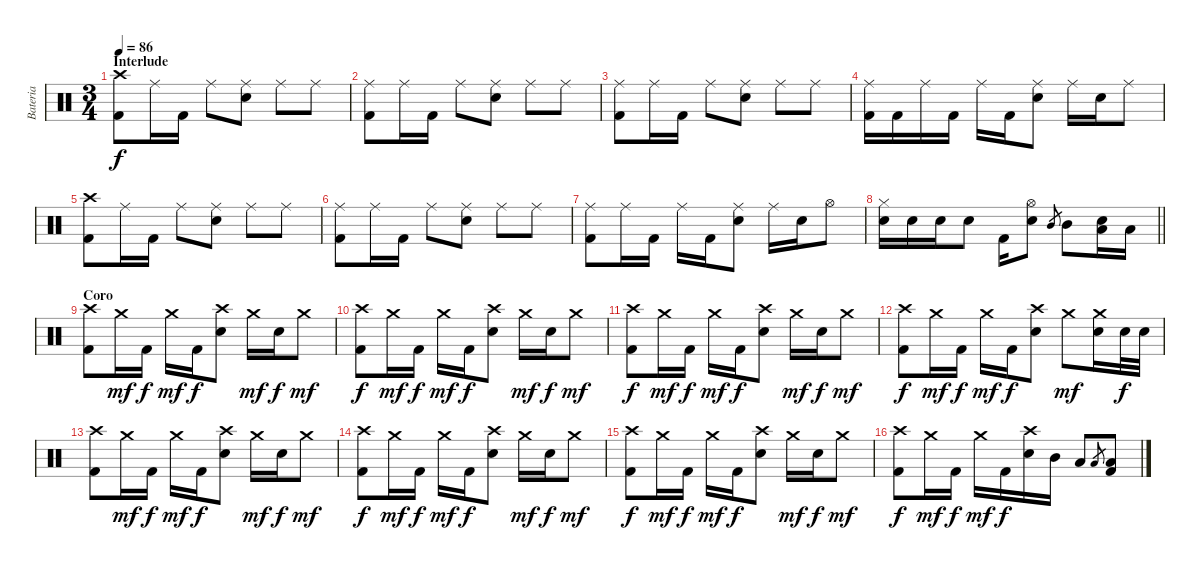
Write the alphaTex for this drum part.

\track ("Bateria" "Bateria") {instrument percussion}
\staff {score}
\articulation defaults
\ts (3 4)
\section ("" "Interlude")
\tempo 86
\clef neutral
\ks c
("Crash high (hit)" "Kick (hit) 2").8{dy f} "Ride (middle)".16 "Kick (hit) 2".16 "Ride (middle)".8 ("Ride (middle)" "Snare (hit) 2").8 "Ride (middle)".8 "Ride (middle)".8 |
("Ride (middle)" "Kick (hit) 2").8 "Ride (middle)".16 "Kick (hit) 2".16 "Ride (middle)".8 ("Ride (middle)" "Snare (hit) 2").8 "Ride (middle)".8 "Ride (middle)".8 |
("Ride (middle)" "Kick (hit) 2").8 "Ride (middle)".16 "Kick (hit) 2".16 "Ride (middle)".8 ("Ride (middle)" "Snare (hit) 2").8 "Ride (middle)".8 "Ride (middle)".8 |
("Ride (middle)" "Kick (hit) 2").16 "Kick (hit) 2".16 "Ride (middle)".16 "Kick (hit) 2".16 "Ride (middle)".16 "Kick (hit) 2".16 ("Ride (middle)" "Snare (hit) 2").8 "Ride (middle)".16 "Snare (hit) 2".16 "Ride (middle)".8 |
("Crash high (hit)" "Kick (hit) 2").8 "Ride (middle)".16 "Kick (hit) 2".16 "Ride (middle)".8 ("Ride (middle)" "Snare (hit) 2").8 "Ride (middle)".8 "Ride (middle)".8 |
("Ride (middle)" "Kick (hit) 2").8 "Ride (middle)".16 "Kick (hit) 2".16 "Ride (middle)".8 ("Ride (middle)" "Snare (hit) 2").8 "Ride (middle)".8 "Ride (middle)".8 |
("Ride (middle)" "Kick (hit) 2").8 "Ride (middle)".16 "Kick (hit) 2".16 "Ride (middle)".16 "Kick (hit) 2".16 ("Ride (middle)" "Snare (hit) 2").8 "Ride (middle)".16 "Snare (hit) 2".16 "Hi-Hat (open)".8 |
\barLineRight lightlight
("Hi-Hat (closed)" "Snare (hit) 2").16 "Snare (hit) 2".16 "Snare (hit) 2".16 "Snare (hit) 2".8 "Kick (hit) 2".16 ("Hi-Hat (open)" "Snare (hit) 2").8 "Mid Tom (hit)".8{gr} "Mid Tom (hit)".8 ("Snare (hit) 2" "Low Tom (hit)").16 "Low Floor Tom (hit)".16 |
\section ("" "Coro")
("Crash high (hit)" "Kick (hit) 2").8 "Crash medium (hit)".16{dy mf} "Kick (hit) 2".16{dy f} "Crash medium (hit)".16{dy mf} "Kick (hit) 2".16{dy f} ("Crash high (hit)" "Snare (hit) 2").8 "Crash medium (hit)".16{dy mf} "Snare (hit) 2".16{dy f} "Crash medium (hit)".8{dy mf} |
("Crash high (hit)" "Kick (hit) 2").8{dy f} "Crash medium (hit)".16{dy mf} "Kick (hit) 2".16{dy f} "Crash medium (hit)".16{dy mf} "Kick (hit) 2".16{dy f} ("Crash high (hit)" "Snare (hit) 2").8 "Crash medium (hit)".16{dy mf} "Snare (hit) 2".16{dy f} "Crash medium (hit)".8{dy mf} |
("Crash high (hit)" "Kick (hit) 2").8{dy f} "Crash medium (hit)".16{dy mf} "Kick (hit) 2".16{dy f} "Crash medium (hit)".16{dy mf} "Kick (hit) 2".16{dy f} ("Crash high (hit)" "Snare (hit) 2").8 "Crash medium (hit)".16{dy mf} "Snare (hit) 2".16{dy f} "Crash medium (hit)".8{dy mf} |
("Crash high (hit)" "Kick (hit) 2").8{dy f} "Crash medium (hit)".16{dy mf} "Kick (hit) 2".16{dy f} "Crash medium (hit)".16{dy mf} "Kick (hit) 2".16{dy f} ("Crash high (hit)" "Snare (hit) 2").8 "Crash medium (hit)".8{dy mf} ("Crash medium (hit)" "Snare (hit) 2").16 "Snare (hit) 2".32{dy f} "Snare (hit) 2".32 |
("Crash high (hit)" "Kick (hit) 2").8 "Crash medium (hit)".16{dy mf} "Kick (hit) 2".16{dy f} "Crash medium (hit)".16{dy mf} "Kick (hit) 2".16{dy f} ("Crash high (hit)" "Snare (hit) 2").8 "Crash medium (hit)".16{dy mf} "Snare (hit) 2".16{dy f} "Crash medium (hit)".8{dy mf} |
("Crash high (hit)" "Kick (hit) 2").8{dy f} "Crash medium (hit)".16{dy mf} "Kick (hit) 2".16{dy f} "Crash medium (hit)".16{dy mf} "Kick (hit) 2".16{dy f} ("Crash high (hit)" "Snare (hit) 2").8 "Crash medium (hit)".16{dy mf} "Snare (hit) 2".16{dy f} "Crash medium (hit)".8{dy mf} |
("Crash high (hit)" "Kick (hit) 2").8{dy f} "Crash medium (hit)".16{dy mf} "Kick (hit) 2".16{dy f} "Crash medium (hit)".16{dy mf} "Kick (hit) 2".16{dy f} ("Crash high (hit)" "Snare (hit) 2").8 "Crash medium (hit)".16{dy mf} "Snare (hit) 2".16{dy f} "Crash medium (hit)".8{dy mf} |
("Crash high (hit)" "Kick (hit) 2").8{dy f} "Crash medium (hit)".16{dy mf} "Kick (hit) 2".16{dy f} "Crash medium (hit)".16{dy mf} "Kick (hit) 2".16{dy f} ("Crash high (hit)" "Snare (hit) 2").16 "Mid Tom (hit)".16 "Low Tom (hit)".8 "Low Floor Tom (hit)".8{gr} ("Low Floor Tom (hit)" "Kick (hit) 2").8
